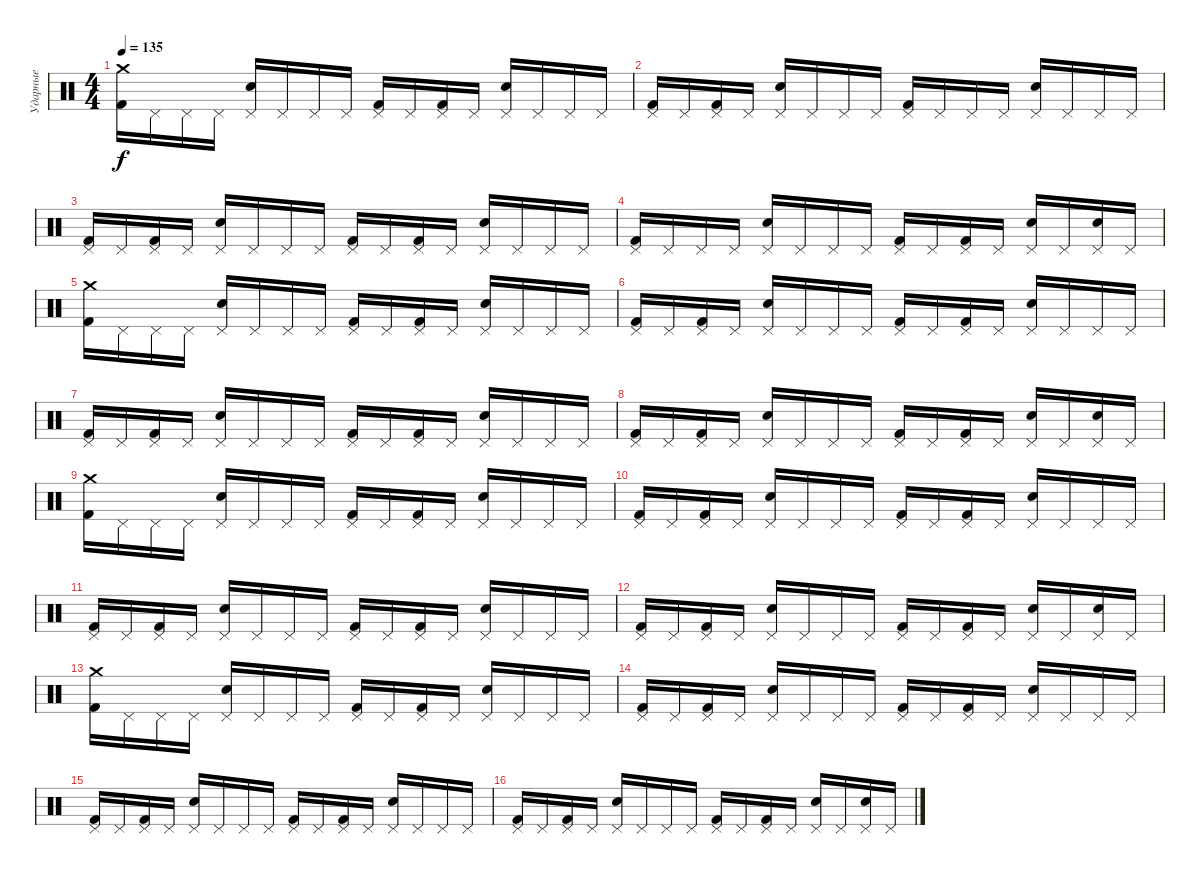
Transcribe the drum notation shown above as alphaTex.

\track ("Ударные" "Ударные") {instrument percussion}
\staff {score}
\articulation defaults
\ts (4 4)
\tempo 135
\clef neutral
\ks c
("Crash medium (hit)" "Kick (hit) 2").16{dy f} "Pedal Hi-Hat (hit)".16 "Pedal Hi-Hat (hit)".16 "Pedal Hi-Hat (hit)".16 ("Pedal Hi-Hat (hit)" "Snare (hit) 2").16 "Pedal Hi-Hat (hit)".16 "Pedal Hi-Hat (hit)".16 "Pedal Hi-Hat (hit)".16 ("Pedal Hi-Hat (hit)" "Kick (hit) 2").16 "Pedal Hi-Hat (hit)".16 ("Pedal Hi-Hat (hit)" "Kick (hit) 2").16 "Pedal Hi-Hat (hit)".16 ("Pedal Hi-Hat (hit)" "Snare (hit) 2").16 "Pedal Hi-Hat (hit)".16 "Pedal Hi-Hat (hit)".16 "Pedal Hi-Hat (hit)".16 |
("Pedal Hi-Hat (hit)" "Kick (hit) 2").16 "Pedal Hi-Hat (hit)".16 ("Pedal Hi-Hat (hit)" "Kick (hit) 2").16 "Pedal Hi-Hat (hit)".16 ("Pedal Hi-Hat (hit)" "Snare (hit) 2").16 "Pedal Hi-Hat (hit)".16 "Pedal Hi-Hat (hit)".16 "Pedal Hi-Hat (hit)".16 ("Pedal Hi-Hat (hit)" "Kick (hit) 2").16 "Pedal Hi-Hat (hit)".16 "Pedal Hi-Hat (hit)".16 "Pedal Hi-Hat (hit)".16 ("Pedal Hi-Hat (hit)" "Snare (hit) 2").16 "Pedal Hi-Hat (hit)".16 "Pedal Hi-Hat (hit)".16 "Pedal Hi-Hat (hit)".16 |
("Pedal Hi-Hat (hit)" "Kick (hit) 2").16 "Pedal Hi-Hat (hit)".16 ("Pedal Hi-Hat (hit)" "Kick (hit) 2").16 "Pedal Hi-Hat (hit)".16 ("Pedal Hi-Hat (hit)" "Snare (hit) 2").16 "Pedal Hi-Hat (hit)".16 "Pedal Hi-Hat (hit)".16 "Pedal Hi-Hat (hit)".16 ("Pedal Hi-Hat (hit)" "Kick (hit) 2").16 "Pedal Hi-Hat (hit)".16 ("Pedal Hi-Hat (hit)" "Kick (hit) 2").16 "Pedal Hi-Hat (hit)".16 ("Pedal Hi-Hat (hit)" "Snare (hit) 2").16 "Pedal Hi-Hat (hit)".16 "Pedal Hi-Hat (hit)".16 "Pedal Hi-Hat (hit)".16 |
("Pedal Hi-Hat (hit)" "Kick (hit) 2").16 "Pedal Hi-Hat (hit)".16 "Pedal Hi-Hat (hit)".16 "Pedal Hi-Hat (hit)".16 ("Pedal Hi-Hat (hit)" "Snare (hit) 2").16 "Pedal Hi-Hat (hit)".16 "Pedal Hi-Hat (hit)".16 "Pedal Hi-Hat (hit)".16 ("Pedal Hi-Hat (hit)" "Kick (hit) 2").16 "Pedal Hi-Hat (hit)".16 ("Pedal Hi-Hat (hit)" "Kick (hit) 2").16 "Pedal Hi-Hat (hit)".16 ("Pedal Hi-Hat (hit)" "Snare (hit) 2").16 "Pedal Hi-Hat (hit)".16 ("Pedal Hi-Hat (hit)" "Snare (hit) 2").16 "Pedal Hi-Hat (hit)".16 |
("Crash medium (hit)" "Kick (hit) 2").16 "Pedal Hi-Hat (hit)".16 "Pedal Hi-Hat (hit)".16 "Pedal Hi-Hat (hit)".16 ("Pedal Hi-Hat (hit)" "Snare (hit) 2").16 "Pedal Hi-Hat (hit)".16 "Pedal Hi-Hat (hit)".16 "Pedal Hi-Hat (hit)".16 ("Pedal Hi-Hat (hit)" "Kick (hit) 2").16 "Pedal Hi-Hat (hit)".16 ("Pedal Hi-Hat (hit)" "Kick (hit) 2").16 "Pedal Hi-Hat (hit)".16 ("Pedal Hi-Hat (hit)" "Snare (hit) 2").16 "Pedal Hi-Hat (hit)".16 "Pedal Hi-Hat (hit)".16 "Pedal Hi-Hat (hit)".16 |
("Pedal Hi-Hat (hit)" "Kick (hit) 2").16 "Pedal Hi-Hat (hit)".16 ("Pedal Hi-Hat (hit)" "Kick (hit) 2").16 "Pedal Hi-Hat (hit)".16 ("Pedal Hi-Hat (hit)" "Snare (hit) 2").16 "Pedal Hi-Hat (hit)".16 "Pedal Hi-Hat (hit)".16 "Pedal Hi-Hat (hit)".16 ("Pedal Hi-Hat (hit)" "Kick (hit) 2").16 "Pedal Hi-Hat (hit)".16 ("Pedal Hi-Hat (hit)" "Kick (hit) 2").16 "Pedal Hi-Hat (hit)".16 ("Pedal Hi-Hat (hit)" "Snare (hit) 2").16 "Pedal Hi-Hat (hit)".16 "Pedal Hi-Hat (hit)".16 "Pedal Hi-Hat (hit)".16 |
("Pedal Hi-Hat (hit)" "Kick (hit) 2").16 "Pedal Hi-Hat (hit)".16 ("Pedal Hi-Hat (hit)" "Kick (hit) 2").16 "Pedal Hi-Hat (hit)".16 ("Pedal Hi-Hat (hit)" "Snare (hit) 2").16 "Pedal Hi-Hat (hit)".16 "Pedal Hi-Hat (hit)".16 "Pedal Hi-Hat (hit)".16 ("Pedal Hi-Hat (hit)" "Kick (hit) 2").16 "Pedal Hi-Hat (hit)".16 ("Pedal Hi-Hat (hit)" "Kick (hit) 2").16 "Pedal Hi-Hat (hit)".16 ("Pedal Hi-Hat (hit)" "Snare (hit) 2").16 "Pedal Hi-Hat (hit)".16 "Pedal Hi-Hat (hit)".16 "Pedal Hi-Hat (hit)".16 |
("Pedal Hi-Hat (hit)" "Kick (hit) 2").16 "Pedal Hi-Hat (hit)".16 ("Pedal Hi-Hat (hit)" "Kick (hit) 2").16 "Pedal Hi-Hat (hit)".16 ("Pedal Hi-Hat (hit)" "Snare (hit) 2").16 "Pedal Hi-Hat (hit)".16 "Pedal Hi-Hat (hit)".16 "Pedal Hi-Hat (hit)".16 ("Pedal Hi-Hat (hit)" "Kick (hit) 2").16 "Pedal Hi-Hat (hit)".16 ("Pedal Hi-Hat (hit)" "Kick (hit) 2").16 "Pedal Hi-Hat (hit)".16 ("Pedal Hi-Hat (hit)" "Snare (hit) 2").16 "Pedal Hi-Hat (hit)".16 ("Pedal Hi-Hat (hit)" "Snare (hit) 2").16 "Pedal Hi-Hat (hit)".16 |
("Crash medium (hit)" "Kick (hit) 2").16 "Pedal Hi-Hat (hit)".16 "Pedal Hi-Hat (hit)".16 "Pedal Hi-Hat (hit)".16 ("Pedal Hi-Hat (hit)" "Snare (hit) 2").16 "Pedal Hi-Hat (hit)".16 "Pedal Hi-Hat (hit)".16 "Pedal Hi-Hat (hit)".16 ("Pedal Hi-Hat (hit)" "Kick (hit) 2").16 "Pedal Hi-Hat (hit)".16 ("Pedal Hi-Hat (hit)" "Kick (hit) 2").16 "Pedal Hi-Hat (hit)".16 ("Pedal Hi-Hat (hit)" "Snare (hit) 2").16 "Pedal Hi-Hat (hit)".16 "Pedal Hi-Hat (hit)".16 "Pedal Hi-Hat (hit)".16 |
("Pedal Hi-Hat (hit)" "Kick (hit) 2").16 "Pedal Hi-Hat (hit)".16 ("Pedal Hi-Hat (hit)" "Kick (hit) 2").16 "Pedal Hi-Hat (hit)".16 ("Pedal Hi-Hat (hit)" "Snare (hit) 2").16 "Pedal Hi-Hat (hit)".16 "Pedal Hi-Hat (hit)".16 "Pedal Hi-Hat (hit)".16 ("Pedal Hi-Hat (hit)" "Kick (hit) 2").16 "Pedal Hi-Hat (hit)".16 ("Pedal Hi-Hat (hit)" "Kick (hit) 2").16 "Pedal Hi-Hat (hit)".16 ("Pedal Hi-Hat (hit)" "Snare (hit) 2").16 "Pedal Hi-Hat (hit)".16 "Pedal Hi-Hat (hit)".16 "Pedal Hi-Hat (hit)".16 |
("Pedal Hi-Hat (hit)" "Kick (hit) 2").16 "Pedal Hi-Hat (hit)".16 ("Pedal Hi-Hat (hit)" "Kick (hit) 2").16 "Pedal Hi-Hat (hit)".16 ("Pedal Hi-Hat (hit)" "Snare (hit) 2").16 "Pedal Hi-Hat (hit)".16 "Pedal Hi-Hat (hit)".16 "Pedal Hi-Hat (hit)".16 ("Pedal Hi-Hat (hit)" "Kick (hit) 2").16 "Pedal Hi-Hat (hit)".16 ("Pedal Hi-Hat (hit)" "Kick (hit) 2").16 "Pedal Hi-Hat (hit)".16 ("Pedal Hi-Hat (hit)" "Snare (hit) 2").16 "Pedal Hi-Hat (hit)".16 "Pedal Hi-Hat (hit)".16 "Pedal Hi-Hat (hit)".16 |
("Pedal Hi-Hat (hit)" "Kick (hit) 2").16 "Pedal Hi-Hat (hit)".16 ("Pedal Hi-Hat (hit)" "Kick (hit) 2").16 "Pedal Hi-Hat (hit)".16 ("Pedal Hi-Hat (hit)" "Snare (hit) 2").16 "Pedal Hi-Hat (hit)".16 "Pedal Hi-Hat (hit)".16 "Pedal Hi-Hat (hit)".16 ("Pedal Hi-Hat (hit)" "Kick (hit) 2").16 "Pedal Hi-Hat (hit)".16 ("Pedal Hi-Hat (hit)" "Kick (hit) 2").16 "Pedal Hi-Hat (hit)".16 ("Pedal Hi-Hat (hit)" "Snare (hit) 2").16 "Pedal Hi-Hat (hit)".16 ("Pedal Hi-Hat (hit)" "Snare (hit) 2").16 "Pedal Hi-Hat (hit)".16 |
("Crash medium (hit)" "Kick (hit) 2").16 "Pedal Hi-Hat (hit)".16 "Pedal Hi-Hat (hit)".16 "Pedal Hi-Hat (hit)".16 ("Pedal Hi-Hat (hit)" "Snare (hit) 2").16 "Pedal Hi-Hat (hit)".16 "Pedal Hi-Hat (hit)".16 "Pedal Hi-Hat (hit)".16 ("Pedal Hi-Hat (hit)" "Kick (hit) 2").16 "Pedal Hi-Hat (hit)".16 ("Pedal Hi-Hat (hit)" "Kick (hit) 2").16 "Pedal Hi-Hat (hit)".16 ("Pedal Hi-Hat (hit)" "Snare (hit) 2").16 "Pedal Hi-Hat (hit)".16 "Pedal Hi-Hat (hit)".16 "Pedal Hi-Hat (hit)".16 |
("Pedal Hi-Hat (hit)" "Kick (hit) 2").16 "Pedal Hi-Hat (hit)".16 ("Pedal Hi-Hat (hit)" "Kick (hit) 2").16 "Pedal Hi-Hat (hit)".16 ("Pedal Hi-Hat (hit)" "Snare (hit) 2").16 "Pedal Hi-Hat (hit)".16 "Pedal Hi-Hat (hit)".16 "Pedal Hi-Hat (hit)".16 ("Pedal Hi-Hat (hit)" "Kick (hit) 2").16 "Pedal Hi-Hat (hit)".16 ("Pedal Hi-Hat (hit)" "Kick (hit) 2").16 "Pedal Hi-Hat (hit)".16 ("Pedal Hi-Hat (hit)" "Snare (hit) 2").16 "Pedal Hi-Hat (hit)".16 "Pedal Hi-Hat (hit)".16 "Pedal Hi-Hat (hit)".16 |
("Pedal Hi-Hat (hit)" "Kick (hit) 2").16 "Pedal Hi-Hat (hit)".16 ("Pedal Hi-Hat (hit)" "Kick (hit) 2").16 "Pedal Hi-Hat (hit)".16 ("Pedal Hi-Hat (hit)" "Snare (hit) 2").16 "Pedal Hi-Hat (hit)".16 "Pedal Hi-Hat (hit)".16 "Pedal Hi-Hat (hit)".16 ("Pedal Hi-Hat (hit)" "Kick (hit) 2").16 "Pedal Hi-Hat (hit)".16 ("Pedal Hi-Hat (hit)" "Kick (hit) 2").16 "Pedal Hi-Hat (hit)".16 ("Pedal Hi-Hat (hit)" "Snare (hit) 2").16 "Pedal Hi-Hat (hit)".16 "Pedal Hi-Hat (hit)".16 "Pedal Hi-Hat (hit)".16 |
("Pedal Hi-Hat (hit)" "Kick (hit) 2").16 "Pedal Hi-Hat (hit)".16 ("Pedal Hi-Hat (hit)" "Kick (hit) 2").16 "Pedal Hi-Hat (hit)".16 ("Pedal Hi-Hat (hit)" "Snare (hit) 2").16 "Pedal Hi-Hat (hit)".16 "Pedal Hi-Hat (hit)".16 "Pedal Hi-Hat (hit)".16 ("Pedal Hi-Hat (hit)" "Kick (hit) 2").16 "Pedal Hi-Hat (hit)".16 ("Pedal Hi-Hat (hit)" "Kick (hit) 2").16 "Pedal Hi-Hat (hit)".16 ("Pedal Hi-Hat (hit)" "Snare (hit) 2").16 "Pedal Hi-Hat (hit)".16 ("Pedal Hi-Hat (hit)" "Snare (hit) 2").16 "Pedal Hi-Hat (hit)".16
